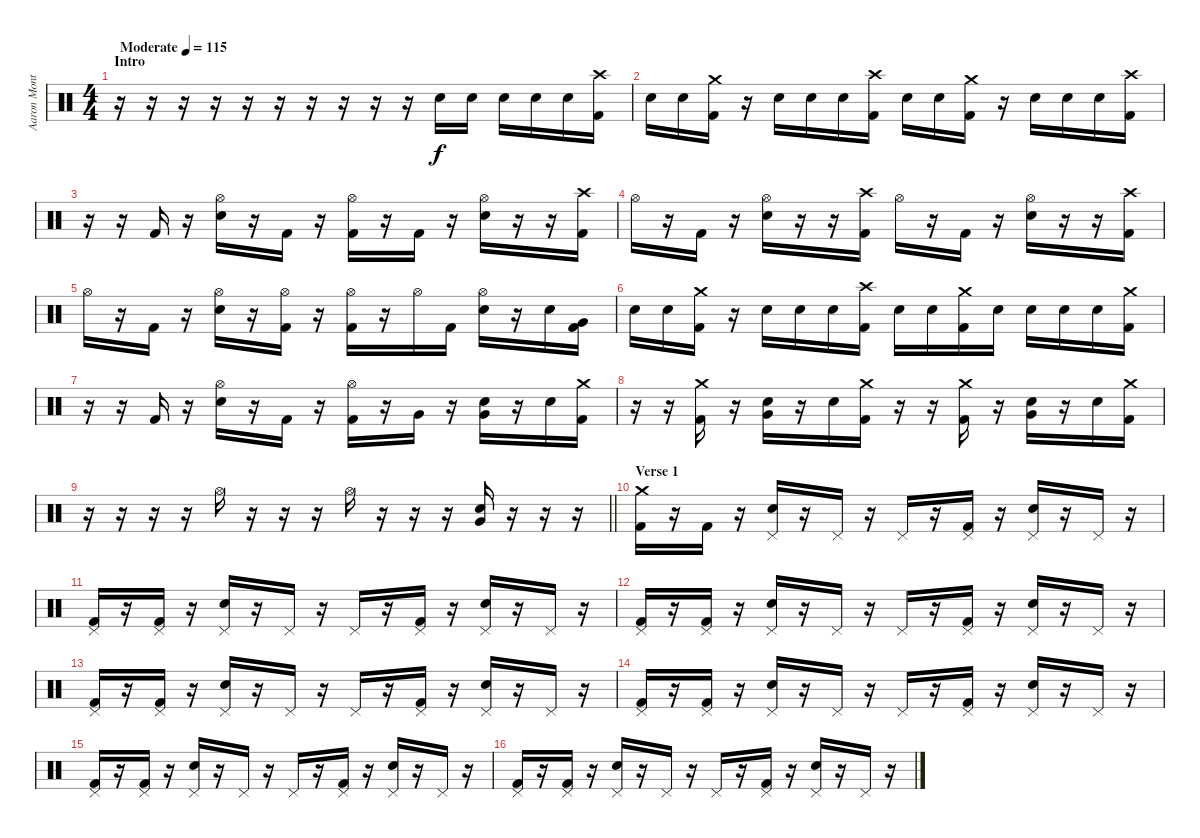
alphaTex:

\track ("Aaron Montgomery" "Aaron Mont") {instrument percussion}
\staff {score}
\articulation defaults
\ts (4 4)
\section ("" "Intro")
\tempo (115 "Moderate")
\clef neutral
\ks c
r.16{dy f} r.16 r.16 r.16 r.16 r.16 r.16 r.16 r.16 r.16 "Snare (hit) 2".16 "Snare (hit) 2".16 "Snare (hit) 2".16 "Snare (hit) 2".16 "Snare (hit) 2".16 ("Crash high (hit)" "Kick (hit) 2").16 |
"Snare (hit) 2".16 "Snare (hit) 2".16 ("Crash medium (hit)" "Kick (hit) 2").16 r.16 "Snare (hit) 2".16 "Snare (hit) 2".16 "Snare (hit) 2".16 ("Crash high (hit)" "Kick (hit) 2").16 "Snare (hit) 2".16 "Snare (hit) 2".16 ("Crash medium (hit)" "Kick (hit) 2").16 r.16 "Snare (hit) 2".16 "Snare (hit) 2".16 "Snare (hit) 2".16 ("Crash high (hit)" "Kick (hit) 2").16 |
r.16 r.16 "Kick (hit) 2".16 r.16 ("Hi-Hat (open)" "Snare (hit) 2").16 r.16 "Kick (hit) 2".16 r.16 ("Hi-Hat (open)" "Kick (hit) 2").16 r.16 "Kick (hit) 2".16 r.16 ("Hi-Hat (open)" "Snare (hit) 2").16 r.16 r.16 ("Crash high (hit)" "Kick (hit) 2").16 |
"Hi-Hat (open)".16 r.16 "Kick (hit) 2".16 r.16 ("Hi-Hat (open)" "Snare (hit) 2").16 r.16 r.16 ("Crash high (hit)" "Kick (hit) 2").16 "Hi-Hat (open)".16 r.16 "Kick (hit) 2".16 r.16 ("Hi-Hat (open)" "Snare (hit) 2").16 r.16 r.16 ("Crash high (hit)" "Kick (hit) 2").16 |
"Hi-Hat (open)".16 r.16 "Kick (hit) 2".16 r.16 ("Hi-Hat (open)" "Snare (hit) 2").16 r.16 ("Hi-Hat (open)" "Kick (hit) 2").16 r.16 ("Hi-Hat (open)" "Kick (hit) 2").16 r.16 "Hi-Hat (open)".16 "Kick (hit) 2".16 ("Hi-Hat (open)" "Snare (hit) 2").16 r.16 "Snare (hit) 2".16 ("Very Low Tom (hit)" "Kick (hit) 2").16 |
"Snare (hit) 2".16 "Snare (hit) 2".16 ("Crash medium (hit)" "Kick (hit) 2").16 r.16 "Snare (hit) 2".16 "Snare (hit) 2".16 "Snare (hit) 2".16 ("Crash high (hit)" "Kick (hit) 2").16 "Snare (hit) 2".16 "Snare (hit) 2".16 ("Crash medium (hit)" "Kick (hit) 2").16 "Snare (hit) 2".16 "Snare (hit) 2".16 "Snare (hit) 2".16 "Snare (hit) 2".16 ("Crash medium (hit)" "Kick (hit) 2").16 |
r.16 r.16 "Kick (hit) 2".16 r.16 ("Hi-Hat (open)" "Snare (hit) 2").16 r.16 "Kick (hit) 2".16 r.16 ("Hi-Hat (open)" "Kick (hit) 2").16 r.16 "Very Low Tom (hit)".16 r.16 ("Very Low Tom (hit)" "Snare (hit) 2").16 r.16 "Snare (hit) 2".16 ("Crash medium (hit)" "Kick (hit) 2").16 |
r.16 r.16 ("Crash medium (hit)" "Kick (hit) 2").16 r.16 ("Very Low Tom (hit)" "Snare (hit) 2").16 r.16 "Snare (hit) 2".16 ("Crash medium (hit)" "Kick (hit) 2").16 r.16 r.16 ("Crash medium (hit)" "Kick (hit) 2").16 r.16 ("Very Low Tom (hit)" "Snare (hit) 2").16 r.16 "Snare (hit) 2".16 ("Crash medium (hit)" "Kick (hit) 2").16 |
\barLineRight lightlight
r.16 r.16 r.16 r.16 "Hi-Hat (open)".16 r.16 r.16 r.16 "Hi-Hat (open)".16 r.16 r.16 r.16 ("Very Low Tom (hit)" "Snare (hit) 2").16 r.16 r.16 r.16 |
\section ("" "Verse 1")
("Crash medium (hit)" "Kick (hit) 2").16 r.16 "Kick (hit) 2".16 r.16 ("Pedal Hi-Hat (hit)" "Snare (hit) 2").16 r.16 "Pedal Hi-Hat (hit)".16 r.16 "Pedal Hi-Hat (hit)".16 r.16 ("Pedal Hi-Hat (hit)" "Kick (hit) 2").16 r.16 ("Pedal Hi-Hat (hit)" "Snare (hit) 2").16 r.16 "Pedal Hi-Hat (hit)".16 r.16 |
("Pedal Hi-Hat (hit)" "Kick (hit) 2").16 r.16 ("Pedal Hi-Hat (hit)" "Kick (hit) 2").16 r.16 ("Pedal Hi-Hat (hit)" "Snare (hit) 2").16 r.16 "Pedal Hi-Hat (hit)".16 r.16 "Pedal Hi-Hat (hit)".16 r.16 ("Pedal Hi-Hat (hit)" "Kick (hit) 2").16 r.16 ("Pedal Hi-Hat (hit)" "Snare (hit) 2").16 r.16 "Pedal Hi-Hat (hit)".16 r.16 |
("Pedal Hi-Hat (hit)" "Kick (hit) 2").16 r.16 ("Pedal Hi-Hat (hit)" "Kick (hit) 2").16 r.16 ("Pedal Hi-Hat (hit)" "Snare (hit) 2").16 r.16 "Pedal Hi-Hat (hit)".16 r.16 "Pedal Hi-Hat (hit)".16 r.16 ("Pedal Hi-Hat (hit)" "Kick (hit) 2").16 r.16 ("Pedal Hi-Hat (hit)" "Snare (hit) 2").16 r.16 "Pedal Hi-Hat (hit)".16 r.16 |
("Pedal Hi-Hat (hit)" "Kick (hit) 2").16 r.16 ("Pedal Hi-Hat (hit)" "Kick (hit) 2").16 r.16 ("Pedal Hi-Hat (hit)" "Snare (hit) 2").16 r.16 "Pedal Hi-Hat (hit)".16 r.16 "Pedal Hi-Hat (hit)".16 r.16 ("Pedal Hi-Hat (hit)" "Kick (hit) 2").16 r.16 ("Pedal Hi-Hat (hit)" "Snare (hit) 2").16 r.16 "Pedal Hi-Hat (hit)".16 r.16 |
("Pedal Hi-Hat (hit)" "Kick (hit) 2").16 r.16 ("Pedal Hi-Hat (hit)" "Kick (hit) 2").16 r.16 ("Pedal Hi-Hat (hit)" "Snare (hit) 2").16 r.16 "Pedal Hi-Hat (hit)".16 r.16 "Pedal Hi-Hat (hit)".16 r.16 ("Pedal Hi-Hat (hit)" "Kick (hit) 2").16 r.16 ("Pedal Hi-Hat (hit)" "Snare (hit) 2").16 r.16 "Pedal Hi-Hat (hit)".16 r.16 |
("Pedal Hi-Hat (hit)" "Kick (hit) 2").16 r.16 ("Pedal Hi-Hat (hit)" "Kick (hit) 2").16 r.16 ("Pedal Hi-Hat (hit)" "Snare (hit) 2").16 r.16 "Pedal Hi-Hat (hit)".16 r.16 "Pedal Hi-Hat (hit)".16 r.16 ("Pedal Hi-Hat (hit)" "Kick (hit) 2").16 r.16 ("Pedal Hi-Hat (hit)" "Snare (hit) 2").16 r.16 "Pedal Hi-Hat (hit)".16 r.16 |
("Pedal Hi-Hat (hit)" "Kick (hit) 2").16 r.16 ("Pedal Hi-Hat (hit)" "Kick (hit) 2").16 r.16 ("Pedal Hi-Hat (hit)" "Snare (hit) 2").16 r.16 "Pedal Hi-Hat (hit)".16 r.16 "Pedal Hi-Hat (hit)".16 r.16 ("Pedal Hi-Hat (hit)" "Kick (hit) 2").16 r.16 ("Pedal Hi-Hat (hit)" "Snare (hit) 2").16 r.16 "Pedal Hi-Hat (hit)".16 r.16
